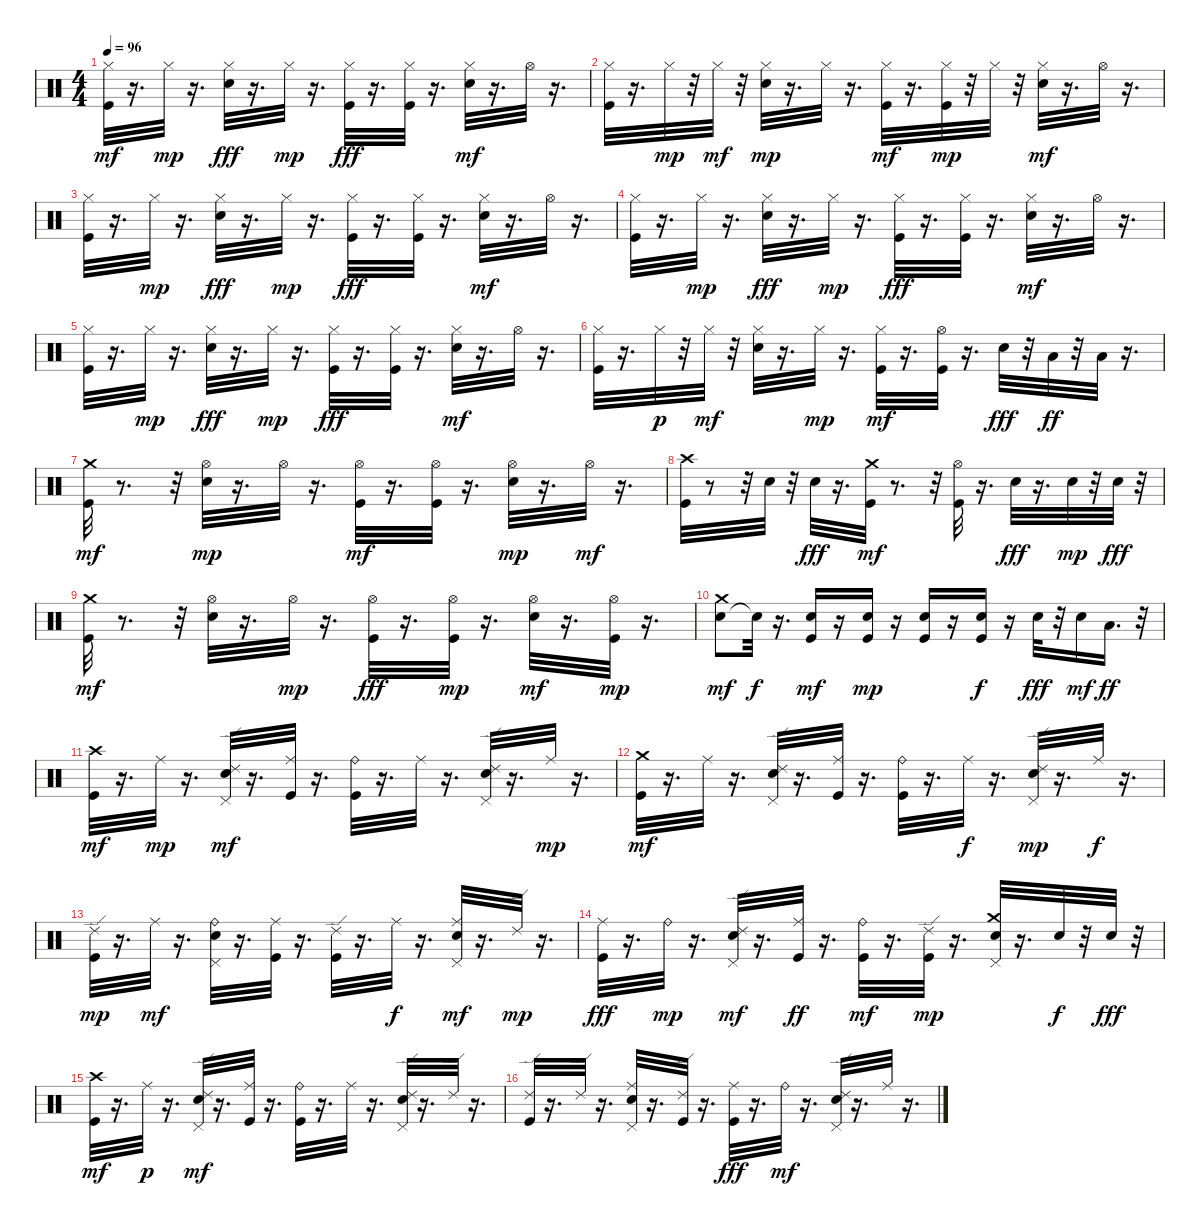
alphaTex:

\track "" {instrument percussion}
\staff {score}
\articulation defaults
\ts (4 4)
\tempo 96
\clef neutral
\ks c
("Kick (hit)" "Hi-Hat (closed)").32{dy mf} r.16{d} "Hi-Hat (closed)".32{dy mp} r.16{d} ("Electric Snare (hit)" "Hi-Hat (closed)").32{dy fff} r.16{d} "Hi-Hat (closed)".32{dy mp} r.16{d} ("Kick (hit)" "Hi-Hat (closed)").32{dy fff} r.16{d} ("Kick (hit)" "Hi-Hat (closed)").32 r.16{d} ("Electric Snare (hit)" "Hi-Hat (closed)").32{dy mf} r.16{d} "Hi-Hat (open)".32 r.16{d} |
("Kick (hit)" "Hi-Hat (closed)").32 r.16{d} "Hi-Hat (closed)".32{dy mp} r.32 "Hi-Hat (closed)".32{dy mf} r.32 ("Electric Snare (hit)" "Hi-Hat (closed)").32{dy mp} r.16{d} "Hi-Hat (closed)".32 r.16{d} ("Kick (hit)" "Hi-Hat (closed)").32{dy mf} r.16{d} ("Kick (hit)" "Hi-Hat (closed)").32{dy mp} r.32 "Hi-Hat (closed)".32 r.32 ("Electric Snare (hit)" "Hi-Hat (closed)").32{dy mf} r.16{d} "Hi-Hat (open)".32 r.16{d} |
("Kick (hit)" "Hi-Hat (closed)").32 r.16{d} "Hi-Hat (closed)".32{dy mp} r.16{d} ("Electric Snare (hit)" "Hi-Hat (closed)").32{dy fff} r.16{d} "Hi-Hat (closed)".32{dy mp} r.16{d} ("Kick (hit)" "Hi-Hat (closed)").32{dy fff} r.16{d} ("Kick (hit)" "Hi-Hat (closed)").32 r.16{d} ("Electric Snare (hit)" "Hi-Hat (closed)").32{dy mf} r.16{d} "Hi-Hat (open)".32 r.16{d} |
("Kick (hit)" "Hi-Hat (closed)").32 r.16{d} "Hi-Hat (closed)".32{dy mp} r.16{d} ("Electric Snare (hit)" "Hi-Hat (closed)").32{dy fff} r.16{d} "Hi-Hat (closed)".32{dy mp} r.16{d} ("Kick (hit)" "Hi-Hat (closed)").32{dy fff} r.16{d} ("Kick (hit)" "Hi-Hat (closed)").32 r.16{d} ("Electric Snare (hit)" "Hi-Hat (closed)").32{dy mf} r.16{d} "Hi-Hat (open)".32 r.16{d} |
("Kick (hit)" "Hi-Hat (closed)").32 r.16{d} "Hi-Hat (closed)".32{dy mp} r.16{d} ("Electric Snare (hit)" "Hi-Hat (closed)").32{dy fff} r.16{d} "Hi-Hat (closed)".32{dy mp} r.16{d} ("Kick (hit)" "Hi-Hat (closed)").32{dy fff} r.16{d} ("Kick (hit)" "Hi-Hat (closed)").32 r.16{d} ("Electric Snare (hit)" "Hi-Hat (closed)").32{dy mf} r.16{d} "Hi-Hat (open)".32 r.16{d} |
("Kick (hit)" "Hi-Hat (closed)").32 r.16{d} "Hi-Hat (closed)".32{dy p} r.32 "Hi-Hat (closed)".32{dy mf} r.32 ("Electric Snare (hit)" "Hi-Hat (closed)").32 r.16{d} "Hi-Hat (closed)".32{dy mp} r.16{d} ("Kick (hit)" "Hi-Hat (closed)").32{dy mf} r.16{d} ("Kick (hit)" "Hi-Hat (open)").32 r.16{d} "Electric Snare (hit)".32{dy fff} r.32 "Low Tom (hit)".32{dy ff} r.32 "Low Floor Tom (hit)".32 r.16{d} |
("Kick (hit)" "Crash medium (hit)").32{dy mf} r.8{d} r.32 ("Electric Snare (hit)" "Hi-Hat (open)").32{dy mp} r.16{d} "Hi-Hat (open)".32 r.16{d} ("Kick (hit)" "Hi-Hat (open)").32{dy mf} r.16{d} ("Kick (hit)" "Hi-Hat (open)").32 r.16{d} ("Electric Snare (hit)" "Hi-Hat (open)").32{dy mp} r.16{d} "Hi-Hat (open)".32{dy mf} r.16{d} |
("Kick (hit)" "Crash high (hit)").32 r.8 r.32 "Electric Snare (hit)".32 r.32 "Electric Snare (hit)".32{dy fff} r.16{d} ("Kick (hit)" "Crash medium (hit)").32{dy mf} r.8{d} r.32 ("Kick (hit)" "Hi-Hat (open)").32 r.16{d} "Electric Snare (hit)".32{dy fff} r.16{d} "Electric Snare (hit)".32{dy mp} r.32 "Electric Snare (hit)".32{dy fff} r.32 |
("Kick (hit)" "Crash medium (hit)").32{dy mf} r.8{d} r.32 ("Electric Snare (hit)" "Hi-Hat (open)").32 r.16{d} "Hi-Hat (open)".32{dy mp} r.16{d} ("Kick (hit)" "Hi-Hat (open)").32{dy fff} r.16{d} ("Kick (hit)" "Hi-Hat (open)").32{dy mp} r.16{d} ("Electric Snare (hit)" "Hi-Hat (open)").32{dy mf} r.16{d} ("Kick (hit)" "Hi-Hat (open)").32{dy mp} r.16{d} |
("Electric Snare (hit)" "Crash medium (hit)").8{dy mf} "Snare (hit)"{t}.32{dy f} r.16{d} ("Electric Snare (hit)" "Kick (hit)").16{dy mf} r.16 ("Electric Snare (hit)" "Kick (hit)").16{dy mp} r.16 ("Kick (hit)" "Electric Snare (hit)").16 r.16 ("Electric Snare (hit)" "Kick (hit)").16{dy f} r.16 "Electric Snare (hit)".32{dy fff} r.32 "Electric Snare (hit)".16{dy mf} "Low Floor Tom (hit)".16{d dy ff} r.32 |
("Kick (hit)" "Crash high (hit)").32{dy mf} r.16{d} "Ride (middle)".32{dy mp} r.16{d} ("Electric Snare (hit)" "Ride (edge) 2" "Pedal Hi-Hat (hit)").32{dy mf} r.16{d} ("Kick (hit)" "Ride (middle)").32 r.16{d} ("Kick (hit)" "Ride (bell)").32 r.16{d} "Ride (middle)".32 r.16{d} ("Electric Snare (hit)" "Ride (edge) 2" "Pedal Hi-Hat (hit)").32 r.16{d} "Ride (middle)".32{dy mp} r.16{d} |
("Kick (hit)" "Crash medium (hit)").32{dy mf} r.16{d} "Ride (middle)".32 r.16{d} ("Electric Snare (hit)" "Ride (edge) 2" "Pedal Hi-Hat (hit)").32 r.16{d} ("Kick (hit)" "Ride (middle)").32 r.16{d} ("Kick (hit)" "Ride (bell)").32 r.16{d} "Ride (middle)".32{dy f} r.16{d} ("Electric Snare (hit)" "Ride (edge) 2" "Pedal Hi-Hat (hit)").32{dy mp} r.16{d} "Ride (middle)".32{dy f} r.16{d} |
("Kick (hit)" "Ride (edge) 2").32{dy mp} r.16{d} "Ride (middle)".32{dy mf} r.16{d} ("Electric Snare (hit)" "Ride (bell)" "Pedal Hi-Hat (hit)").32 r.16{d} ("Kick (hit)" "Ride (middle)").32 r.16{d} ("Kick (hit)" "Ride (edge) 2").32 r.16{d} "Ride (middle)".32{dy f} r.16{d} ("Electric Snare (hit)" "Ride (middle)" "Pedal Hi-Hat (hit)").32{dy mf} r.16{d} "Ride (edge) 2".32{dy mp} r.16{d} |
("Kick (hit)" "Ride (middle)").32{dy fff} r.16{d} "Ride (bell)".32{dy mp} r.16{d} ("Electric Snare (hit)" "Ride (edge) 2" "Pedal Hi-Hat (hit)").32{dy mf} r.16{d} ("Kick (hit)" "Ride (middle)").32{dy ff} r.16{d} ("Kick (hit)" "Ride (bell)").32{dy mf} r.16{d} ("Kick (hit)" "Ride (edge) 2").32{dy mp} r.16{d} ("Electric Snare (hit)" "Crash medium (hit)" "Pedal Hi-Hat (hit)").32 r.16{d} "Electric Snare (hit)".32{dy f} r.32 "Electric Snare (hit)".32{dy fff} r.32 |
("Kick (hit)" "Crash high (hit)").32{dy mf} r.16{d} "Ride (middle)".32{dy p} r.16{d} ("Electric Snare (hit)" "Ride (edge) 2" "Pedal Hi-Hat (hit)").32{dy mf} r.16{d} ("Kick (hit)" "Ride (middle)").32 r.16{d} ("Kick (hit)" "Ride (bell)").32 r.16{d} "Ride (middle)".32 r.16{d} ("Electric Snare (hit)" "Ride (edge) 2" "Pedal Hi-Hat (hit)").32 r.16{d} "Ride (edge) 2".32 r.16{d} |
("Kick (hit)" "Ride (edge) 2").32 r.16{d} "Ride (edge) 2".32 r.16{d} ("Electric Snare (hit)" "Ride (middle)" "Pedal Hi-Hat (hit)").32 r.16{d} ("Kick (hit)" "Ride (edge) 2").32 r.16{d} ("Kick (hit)" "Ride (middle)").32{dy fff} r.16{d} "Ride (bell)".32{dy mf} r.16{d} ("Electric Snare (hit)" "Ride (edge) 2" "Pedal Hi-Hat (hit)").32 r.16{d} "Ride (middle)".32 r.16{d}
